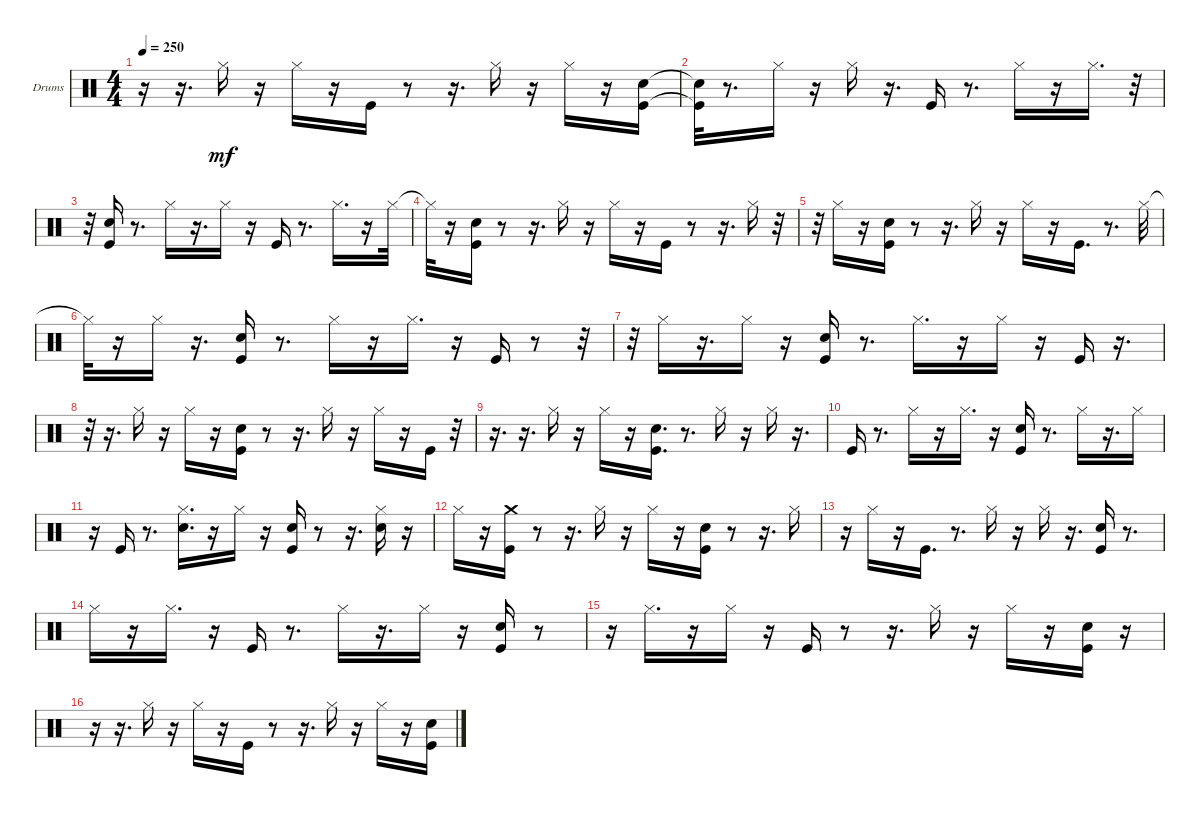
\bracketExtendMode groupsimilarinstruments
\firstSystemTrackNameOrientation horizontal
\otherSystemsTrackNameOrientation horizontal
\track ("Drums" "Drums") {instrument percussion}
\staff {score}
\articulation defaults
\ts (4 4)
\tempo 250
\clef neutral
\ks c
r.16{dy mf} r.16{d} "Hi-Hat (closed)".16 r.16 "Hi-Hat (closed)".16 r.16 "Kick (hit)".16 r.8 r.16{d} "Hi-Hat (closed)".16 r.16 "Hi-Hat (closed)".16 r.16 ("Kick (hit)" "Snare (hit) 2").16 |
("Kick (hit)"{t} "Snare (hit) 2"{t}).32 r.8{d} "Hi-Hat (closed)".16 r.16 "Hi-Hat (closed)".16 r.16{d} "Kick (hit)".16 r.8{d} "Hi-Hat (closed)".16 r.16 "Hi-Hat (closed)".16{d} r.32 |
r.32 ("Kick (hit)" "Snare (hit) 2").16 r.8{d} "Hi-Hat (closed)".16 r.16{d} "Hi-Hat (closed)".16 r.16 "Kick (hit)".16 r.8{d} "Hi-Hat (closed)".16{d} r.16 "Hi-Hat (closed)".32 |
"Hi-Hat (closed)"{t}.32 r.16 ("Kick (hit)" "Snare (hit) 2").16 r.8 r.16{d} "Hi-Hat (closed)".16 r.16 "Hi-Hat (closed)".16 r.16 "Kick (hit)".16 r.8 r.16{d} "Hi-Hat (closed)".16 r.32 |
r.32 "Hi-Hat (closed)".16 r.16 ("Kick (hit)" "Snare (hit) 2").16 r.8 r.16{d} "Hi-Hat (closed)".16 r.16 "Hi-Hat (closed)".16 r.16 "Kick (hit)".16{d} r.8{d} "Hi-Hat (closed)".32 |
"Hi-Hat (closed)"{t}.32 r.16 "Hi-Hat (closed)".16 r.16{d} ("Kick (hit)" "Snare (hit) 2").16 r.8{d} "Hi-Hat (closed)".16 r.16 "Hi-Hat (closed)".16{d} r.16 "Kick (hit)".16 r.8 r.32 |
r.32 "Hi-Hat (closed)".16 r.16{d} "Hi-Hat (closed)".16 r.16 ("Kick (hit)" "Snare (hit) 2").16 r.8{d} "Hi-Hat (closed)".16{d} r.16 "Hi-Hat (closed)".16 r.16 "Kick (hit)".16 r.16{d} |
r.32 r.16{d} "Hi-Hat (closed)".16 r.16 "Hi-Hat (closed)".16 r.16 ("Kick (hit)" "Snare (hit) 2").16 r.8 r.16{d} "Hi-Hat (closed)".16 r.16 "Hi-Hat (closed)".16 r.16 "Kick (hit)".16 r.32 |
r.16{d} r.16{d} "Hi-Hat (closed)".16 r.16 "Hi-Hat (closed)".16 r.16 ("Kick (hit)" "Snare (hit) 2").16{d} r.8{d} "Hi-Hat (closed)".16 r.16 "Hi-Hat (closed)".16 r.16{d} |
"Kick (hit)".16 r.8{d} "Hi-Hat (closed)".16 r.16 "Hi-Hat (closed)".16{d} r.16 ("Kick (hit)" "Snare (hit) 2").16 r.8{d} "Hi-Hat (closed)".16 r.16{d} "Hi-Hat (closed)".16 |
r.16 "Kick (hit)".16 r.8{d} ("Hi-Hat (closed)" "Snare (hit) 2").16{d} r.16 "Hi-Hat (closed)".16 r.16 ("Kick (hit)" "Snare (hit) 2").16 r.8 r.16{d} ("Hi-Hat (closed)" "Snare (hit) 2").16 r.16 |
"Hi-Hat (closed)".16 r.16 ("Kick (hit)" "Crash medium (hit)").16 r.8 r.16{d} "Hi-Hat (closed)".16 r.16 "Hi-Hat (closed)".16 r.16 ("Kick (hit)" "Snare (hit) 2").16 r.8 r.16{d} "Hi-Hat (closed)".16 |
r.16 "Hi-Hat (closed)".16 r.16 "Kick (hit)".16{d} r.8{d} "Hi-Hat (closed)".16 r.16 "Hi-Hat (closed)".16 r.16{d} ("Kick (hit)" "Snare (hit) 2").16 r.8{d} |
"Hi-Hat (closed)".16 r.16 "Hi-Hat (closed)".16{d} r.16 "Kick (hit)".16 r.8{d} "Hi-Hat (closed)".16 r.16{d} "Hi-Hat (closed)".16 r.16 ("Kick (hit)" "Snare (hit) 2").16 r.8 |
r.16 "Hi-Hat (closed)".16{d} r.16 "Hi-Hat (closed)".16 r.16 "Kick (hit)".16 r.8 r.16{d} "Hi-Hat (closed)".16 r.16 "Hi-Hat (closed)".16 r.16 ("Kick (hit)" "Snare (hit) 2").16 r.16 |
r.16 r.16{d} "Hi-Hat (closed)".16 r.16 "Hi-Hat (closed)".16 r.16 "Kick (hit)".16 r.8 r.16{d} "Hi-Hat (closed)".16 r.16 "Hi-Hat (closed)".16 r.16 ("Kick (hit)" "Snare (hit) 2").16
